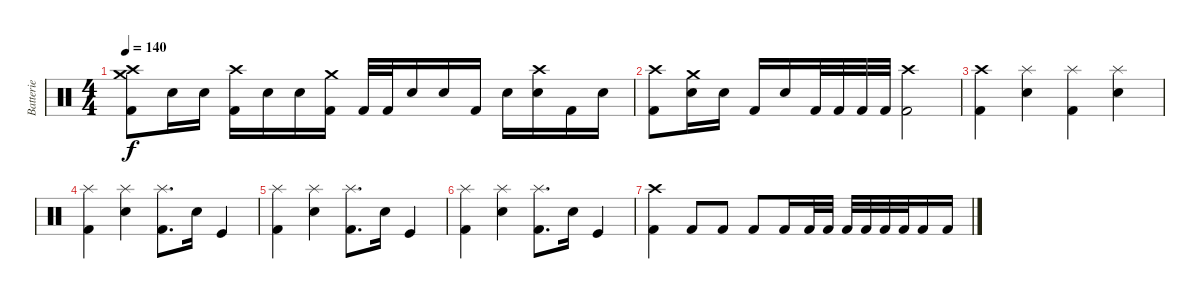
\track ("Batterie" "Batterie") {instrument percussion}
\staff {score}
\articulation defaults
\ts (4 4)
\tempo 140
\clef neutral
\ks c
("Crash high (hit)" "Crash medium (hit)" "Kick (hit) 2").8{dy f} "Electric Snare (hit)".16 "Electric Snare (hit)".16 ("Crash high (hit)" "Kick (hit) 2").16 "Electric Snare (hit)".16 "Electric Snare (hit)".16 ("Crash medium (hit)" "Kick (hit) 2").16 "Kick (hit) 2".32 "Kick (hit) 2".32 "Electric Snare (hit)".16 "Electric Snare (hit)".16 "Kick (hit) 2".16 "Electric Snare (hit)".16 ("Crash high (hit)" "Electric Snare (hit)").16 "Kick (hit) 2".16 "Electric Snare (hit)".16 |
("Crash high (hit)" "Kick (hit) 2").8 ("Crash medium (hit)" "Electric Snare (hit)").16 "Electric Snare (hit)".16 "Kick (hit) 2".16 "Electric Snare (hit)".16 "Kick (hit) 2".32 "Kick (hit) 2".32 "Kick (hit) 2".32 "Kick (hit) 2".32 ("Crash high (hit)" "Kick (hit) 2").2 |
("Crash high (hit)" "Kick (hit) 2").4 ("Splash (hit)" "Electric Snare (hit)").4 ("Splash (hit)" "Kick (hit) 2").4 ("Splash (hit)" "Electric Snare (hit)").4 |
("Splash (hit)" "Kick (hit) 2").4 ("Splash (hit)" "Electric Snare (hit)").4 ("Splash (hit)" "Kick (hit) 2").8{d} "Electric Snare (hit)".16 "Kick (hit)".4 |
("Splash (hit)" "Kick (hit) 2").4 ("Splash (hit)" "Electric Snare (hit)").4 ("Splash (hit)" "Kick (hit) 2").8{d} "Electric Snare (hit)".16 "Kick (hit)".4 |
("Splash (hit)" "Kick (hit) 2").4 ("Splash (hit)" "Electric Snare (hit)").4 ("Splash (hit)" "Kick (hit) 2").8{d} "Electric Snare (hit)".16 "Kick (hit)".4 |
("Crash high (hit)" "Kick (hit) 2").4 "Kick (hit) 2".8 "Kick (hit) 2".8 "Kick (hit) 2".8 "Kick (hit) 2".16 "Kick (hit) 2".32 "Kick (hit) 2".32 "Kick (hit) 2".32 "Kick (hit) 2".32 "Kick (hit) 2".32 "Kick (hit) 2".32 "Kick (hit) 2".16 "Kick (hit) 2".16
